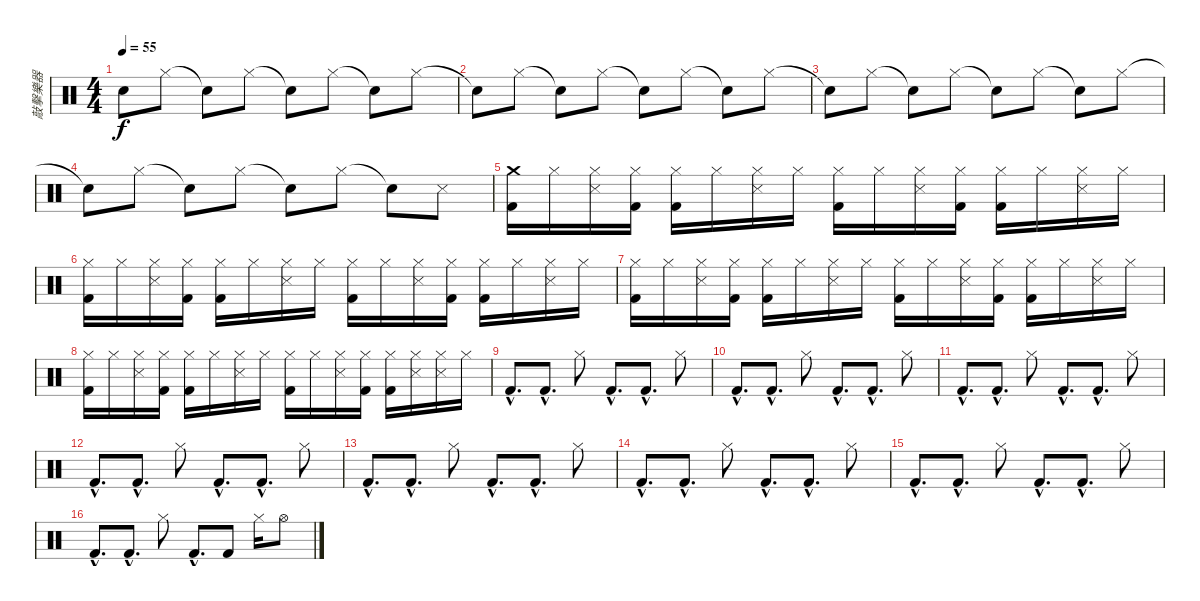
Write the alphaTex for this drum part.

\track ("敲擊樂器" "敲擊樂器") {instrument percussion}
\staff {score}
\articulation defaults
\ts (4 4)
\tempo 55
\clef neutral
\ks c "Snare (hit)"{t}.8{dy f} "Hi-Hat (closed)".8 "Snare (hit)"{t}.8 "Hi-Hat (closed)".8 "Snare (hit)"{t}.8 "Hi-Hat (closed)".8 "Snare (hit)"{t}.8 "Hi-Hat (closed)".8
|
"Snare (hit)"{t}.8 "Hi-Hat (closed)".8 "Snare (hit)"{t}.8 "Hi-Hat (closed)".8 "Snare (hit)"{t}.8 "Hi-Hat (closed)".8 "Snare (hit)"{t}.8 "Hi-Hat (closed)".8 |
"Snare (hit)"{t}.8 "Hi-Hat (closed)".8 "Snare (hit)"{t}.8 "Hi-Hat (closed)".8 "Snare (hit)"{t}.8 "Hi-Hat (closed)".8 "Snare (hit)"{t}.8 "Hi-Hat (closed)".8 |
"Snare (hit)"{t}.8 "Hi-Hat (closed)".8 "Snare (hit)"{t}.8 "Hi-Hat (closed)".8 "Snare (hit)"{t}.8 "Hi-Hat (closed)".8 "Snare (hit)"{t}.8 "Snare (side stick) 3".8 |
("Crash medium (hit)" "Kick (hit) 2").16 "Hi-Hat (closed)".16 ("Hi-Hat (closed)" "Snare (side stick) 3").16 ("Hi-Hat (closed)" "Kick (hit) 2").16 ("Hi-Hat (closed)" "Kick (hit) 2").16 "Hi-Hat (closed)".16 ("Hi-Hat (closed)" "Snare (side stick) 3").16 "Hi-Hat (closed)".16 ("Hi-Hat (closed)" "Kick (hit) 2").16 "Hi-Hat (closed)".16 ("Hi-Hat (closed)" "Snare (side stick) 3").16 ("Hi-Hat (closed)" "Kick (hit) 2").16 ("Hi-Hat (closed)" "Kick (hit) 2").16 "Hi-Hat (closed)".16 ("Hi-Hat (closed)" "Snare (side stick) 3").16 "Hi-Hat (closed)".16 |
("Hi-Hat (closed)" "Kick (hit) 2").16 "Hi-Hat (closed)".16 ("Hi-Hat (closed)" "Snare (side stick) 3").16 ("Hi-Hat (closed)" "Kick (hit) 2").16 ("Hi-Hat (closed)" "Kick (hit) 2").16 "Hi-Hat (closed)".16 ("Hi-Hat (closed)" "Snare (side stick) 3").16 "Hi-Hat (closed)".16 ("Hi-Hat (closed)" "Kick (hit) 2").16 "Hi-Hat (closed)".16 ("Hi-Hat (closed)" "Snare (side stick) 3").16 ("Hi-Hat (closed)" "Kick (hit) 2").16 ("Hi-Hat (closed)" "Kick (hit) 2").16 "Hi-Hat (closed)".16 ("Hi-Hat (closed)" "Snare (side stick) 3").16 "Hi-Hat (closed)".16 |
("Hi-Hat (closed)" "Kick (hit) 2").16 "Hi-Hat (closed)".16 ("Hi-Hat (closed)" "Snare (side stick) 3").16 ("Hi-Hat (closed)" "Kick (hit) 2").16 ("Hi-Hat (closed)" "Kick (hit) 2").16 "Hi-Hat (closed)".16 ("Hi-Hat (closed)" "Snare (side stick) 3").16 "Hi-Hat (closed)".16 ("Hi-Hat (closed)" "Kick (hit) 2").16 "Hi-Hat (closed)".16 ("Hi-Hat (closed)" "Snare (side stick) 3").16 ("Hi-Hat (closed)" "Kick (hit) 2").16 ("Hi-Hat (closed)" "Kick (hit) 2").16 "Hi-Hat (closed)".16 ("Hi-Hat (closed)" "Snare (side stick) 3").16 "Hi-Hat (closed)".16 |
("Hi-Hat (closed)" "Kick (hit) 2").16 "Hi-Hat (closed)".16 ("Hi-Hat (closed)" "Snare (side stick) 3").16 ("Hi-Hat (closed)" "Kick (hit) 2").16 ("Hi-Hat (closed)" "Kick (hit) 2").16 "Hi-Hat (closed)".16 ("Hi-Hat (closed)" "Snare (side stick) 3").16 "Hi-Hat (closed)".16 ("Hi-Hat (closed)" "Kick (hit) 2").16 "Hi-Hat (closed)".16 ("Hi-Hat (closed)" "Snare (side stick) 3").16 ("Hi-Hat (closed)" "Kick (hit) 2").16 ("Hi-Hat (closed)" "Kick (hit) 2").16 ("Hi-Hat (closed)" "Snare (side stick) 3").16 ("Hi-Hat (closed)" "Snare (side stick) 3").16 "Hi-Hat (closed)".16 |
"Kick (hit) 2"{hac}.8{d} "Kick (hit) 2"{hac}.8{d} "Hi-Hat (closed)".8 "Kick (hit) 2"{hac}.8{d} "Kick (hit) 2"{hac}.8{d} "Hi-Hat (closed)".8 |
"Kick (hit) 2"{hac}.8{d} "Kick (hit) 2"{hac}.8{d} "Hi-Hat (closed)".8 "Kick (hit) 2"{hac}.8{d} "Kick (hit) 2"{hac}.8{d} "Hi-Hat (closed)".8 |
"Kick (hit) 2"{hac}.8{d} "Kick (hit) 2"{hac}.8{d} "Hi-Hat (closed)".8 "Kick (hit) 2"{hac}.8{d} "Kick (hit) 2"{hac}.8{d} "Hi-Hat (closed)".8 |
"Kick (hit) 2"{hac}.8{d} "Kick (hit) 2"{hac}.8{d} "Hi-Hat (closed)".8 "Kick (hit) 2"{hac}.8{d} "Kick (hit) 2"{hac}.8{d} "Hi-Hat (closed)".8 |
"Kick (hit) 2"{hac}.8{d} "Kick (hit) 2"{hac}.8{d} "Hi-Hat (closed)".8 "Kick (hit) 2"{hac}.8{d} "Kick (hit) 2"{hac}.8{d} "Hi-Hat (closed)".8 |
"Kick (hit) 2"{hac}.8{d} "Kick (hit) 2"{hac}.8{d} "Hi-Hat (closed)".8 "Kick (hit) 2"{hac}.8{d} "Kick (hit) 2"{hac}.8{d} "Hi-Hat (closed)".8 |
"Kick (hit) 2"{hac}.8{d} "Kick (hit) 2"{hac}.8{d} "Hi-Hat (closed)".8 "Kick (hit) 2"{hac}.8{d} "Kick (hit) 2"{hac}.8{d} "Hi-Hat (closed)".8 |
"Kick (hit) 2"{hac}.8{d} "Kick (hit) 2"{hac}.8{d} "Hi-Hat (closed)".8 "Kick (hit) 2"{hac}.8{d} "Kick (hit) 2".8 "Hi-Hat (closed)".16 "Hi-Hat (open)".8
